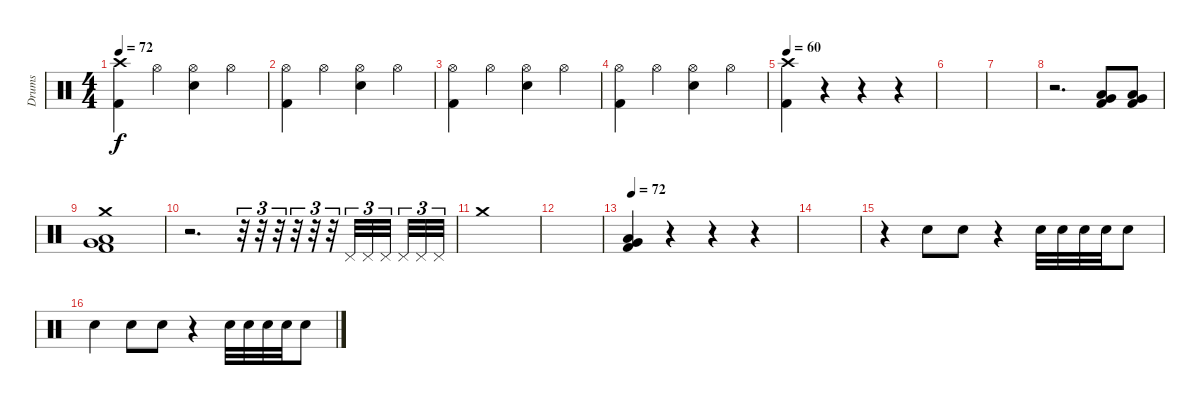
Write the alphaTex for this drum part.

\track ("Drums" "Drums") {instrument percussion}
\staff {score}
\articulation defaults
\ts (4 4)
\tempo 72
\clef neutral
\ks c
("Crash high (hit)" "Kick (hit) 2").4{dy f} "Hi-Hat (open)".4 ("Hi-Hat (open)" "Snare (hit) 2").4 "Hi-Hat (open)".4 |
("Hi-Hat (open)" "Kick (hit) 2").4 "Hi-Hat (open)".4 ("Hi-Hat (open)" "Snare (hit) 2").4 "Hi-Hat (open)".4 |
("Hi-Hat (open)" "Kick (hit) 2").4 "Hi-Hat (open)".4 ("Hi-Hat (open)" "Snare (hit) 2").4 "Hi-Hat (open)".4 |
("Hi-Hat (open)" "Kick (hit) 2").4 "Hi-Hat (open)".4 ("Hi-Hat (open)" "Snare (hit) 2").4 "Hi-Hat (open)".4 |
\tempo 60
("Crash high (hit)" "Kick (hit) 2").4 r.4 r.4 r.4 |
|
|
r.2{d} ("Kick (hit) 2" "Low Floor Tom (hit)" "Very Low Tom (hit)").8 ("Kick (hit) 2" "Low Floor Tom (hit)" "Very Low Tom (hit)").8 |
("Crash medium (hit)" "Kick (hit) 2" "Low Floor Tom (hit)" "Very Low Tom (hit)").1 |
r.2{d} r.32{tu (3 2)} r.32{tu (3 2)} r.32{tu (3 2)} r.32{tu (3 2)} r.32{tu (3 2)} r.32{tu (3 2)} "Pedal Hi-Hat (hit)".32{tu (3 2)} "Pedal Hi-Hat (hit)".32{tu (3 2)} "Pedal Hi-Hat (hit)".32{tu (3 2) beam splitsecondary} "Pedal Hi-Hat (hit)".32{tu (3 2)} "Pedal Hi-Hat (hit)".32{tu (3 2)} "Pedal Hi-Hat (hit)".32{tu (3 2)} |
"Crash medium (hit)".1 |
|
\tempo 72
("Very Low Tom (hit)" "Low Floor Tom (hit)" "Kick (hit) 2").4 r.4 r.4 r.4 |
|
r.4 "Electric Snare (hit)".8 "Electric Snare (hit)".8 r.4 "Electric Snare (hit)".32 "Electric Snare (hit)".32 "Electric Snare (hit)".32 "Electric Snare (hit)".32 "Electric Snare (hit)".8 |
"Electric Snare (hit)".4 "Electric Snare (hit)".8 "Electric Snare (hit)".8 r.4 "Electric Snare (hit)".32 "Electric Snare (hit)".32 "Electric Snare (hit)".32 "Electric Snare (hit)".32 "Electric Snare (hit)".8
